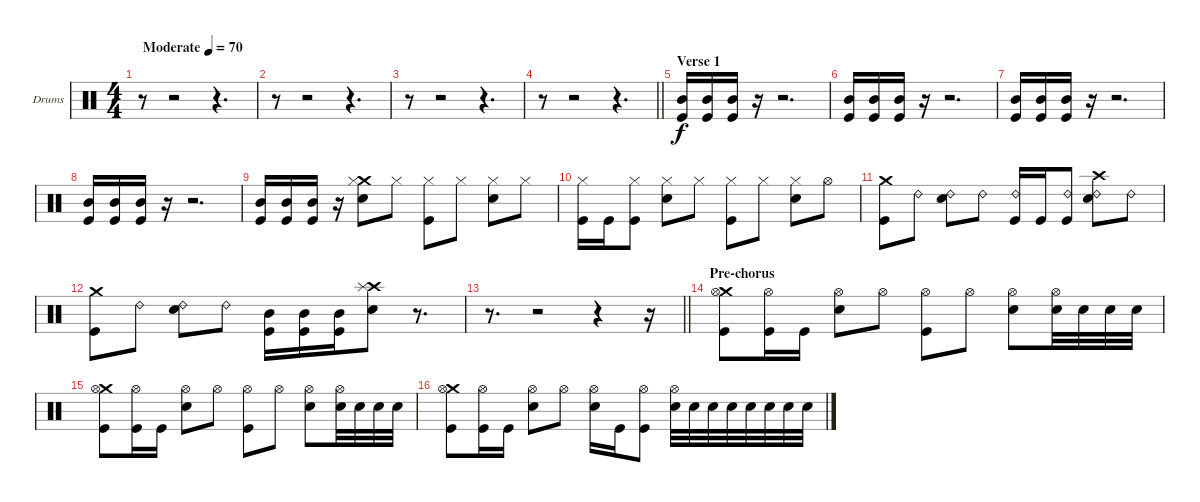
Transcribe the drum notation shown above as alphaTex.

\bracketExtendMode groupsimilarinstruments
\firstSystemTrackNameOrientation horizontal
\otherSystemsTrackNameOrientation horizontal
\track ("Drumkit" "Drums") {instrument percussion}
\staff {score}
\articulation defaults
\ts (4 4)
\beaming (8 2 2 2 2)
\tempo (70 "Moderate")
\clef neutral
\ks c
r.8{dy f} r.2 r.4{d} |
r.8 r.2 r.4{d} |
r.8 r.2 r.4{d} |
\barLineRight lightlight
r.8 r.2 r.4{d} |
\section ("" "Verse 1")
("Mid Tom (hit)" "Kick (hit)").16 ("Mid Tom (hit)" "Kick (hit)").16 ("Mid Tom (hit)" "Kick (hit)").16 r.16 r.2{d} |
("Mid Tom (hit)" "Kick (hit)").16 ("Mid Tom (hit)" "Kick (hit)").16 ("Mid Tom (hit)" "Kick (hit)").16 r.16 r.2{d} |
("Mid Tom (hit)" "Kick (hit)").16 ("Mid Tom (hit)" "Kick (hit)").16 ("Mid Tom (hit)" "Kick (hit)").16 r.16 r.2{d} |
("Mid Tom (hit)" "Kick (hit)").16 ("Mid Tom (hit)" "Kick (hit)").16 ("Mid Tom (hit)" "Kick (hit)").16 r.16 r.2{d} |
("Mid Tom (hit)" "Kick (hit)").16 ("Mid Tom (hit)" "Kick (hit)").16 ("Mid Tom (hit)" "Kick (hit)").16 r.16 ("Crash medium (hit)" "Hi-Hat (closed)" "Snare (hit) 2").8 "Hi-Hat (closed)".8 ("Hi-Hat (closed)" "Kick (hit)").8 "Hi-Hat (closed)".8 ("Hi-Hat (closed)" "Snare (hit) 2").8 "Hi-Hat (closed)".8 |
("Hi-Hat (closed)" "Kick (hit)").16 "Kick (hit)".16 ("Hi-Hat (closed)" "Kick (hit)").8 ("Hi-Hat (closed)" "Snare (hit) 2").8 "Hi-Hat (closed)".8 ("Hi-Hat (closed)" "Kick (hit)").8 "Hi-Hat (closed)".8 ("Hi-Hat (closed)" "Snare (hit) 2").8 "Hi-Hat (open)".8 |
("Crash medium (hit)" "Kick (hit)").8 "Ride (bell) 2".8 ("Ride (bell) 2" "Snare (hit) 2").8 "Ride (bell) 2".8 ("Ride (bell) 2" "Kick (hit)").16 "Kick (hit)".16 ("Ride (bell) 2" "Kick (hit)").8 ("Crash high (hit)" "Ride (bell) 2" "Snare (hit) 2").8 "Ride (bell) 2".8 |
("Crash medium (hit)" "Kick (hit)").8 "Ride (bell) 2".8 ("Ride (bell) 2" "Snare (hit) 2").8 "Ride (bell) 2".8 ("Mid Tom (hit)" "Kick (hit)").16 ("Mid Tom (hit)" "Kick (hit)").16 ("Mid Tom (hit)" "Kick (hit)").16 ("Crash high (hit)" "Splash (hit)" "Snare (hit) 2").8 r.8{d} |
\barLineRight lightlight
r.8{d} r.2 r.4 r.16 |
\section ("" "Pre-chorus")
("Crash medium (hit)" "Hi-Hat (open)" "Kick (hit)").8 ("Hi-Hat (open)" "Kick (hit)").16 "Kick (hit)".16 ("Hi-Hat (open)" "Snare (hit) 2").8 "Hi-Hat (open)".8 ("Hi-Hat (open)" "Kick (hit)").8 "Hi-Hat (open)".8 ("Hi-Hat (open)" "Snare (hit) 2").8 ("Hi-Hat (open)" "Snare (hit) 2").32 "Snare (hit) 2".32 "Snare (hit) 2".32 "Snare (hit) 2".32 |
("Crash medium (hit)" "Hi-Hat (open)" "Kick (hit)").8 ("Hi-Hat (open)" "Kick (hit)").16 "Kick (hit)".16 ("Hi-Hat (open)" "Snare (hit) 2").8 "Hi-Hat (open)".8 ("Hi-Hat (open)" "Kick (hit)").8 "Hi-Hat (open)".8 ("Hi-Hat (open)" "Snare (hit) 2").8 ("Hi-Hat (open)" "Snare (hit) 2").32 "Snare (hit) 2".32 "Snare (hit) 2".32 "Snare (hit) 2".32 |
("Crash medium (hit)" "Hi-Hat (open)" "Kick (hit)").8 ("Hi-Hat (open)" "Kick (hit)").16 "Kick (hit)".16 ("Hi-Hat (open)" "Snare (hit) 2").8 "Hi-Hat (open)".8 ("Hi-Hat (open)" "Snare (hit) 2").16 "Kick (hit)".16 ("Hi-Hat (open)" "Kick (hit)").8 ("Hi-Hat (open)" "Snare (hit) 2").32 "Snare (hit) 2".32 "Snare (hit) 2".32 "Snare (hit) 2".32 "Snare (hit) 2".32 "Snare (hit) 2".32 "Snare (hit) 2".32 "Snare (hit) 2".32
